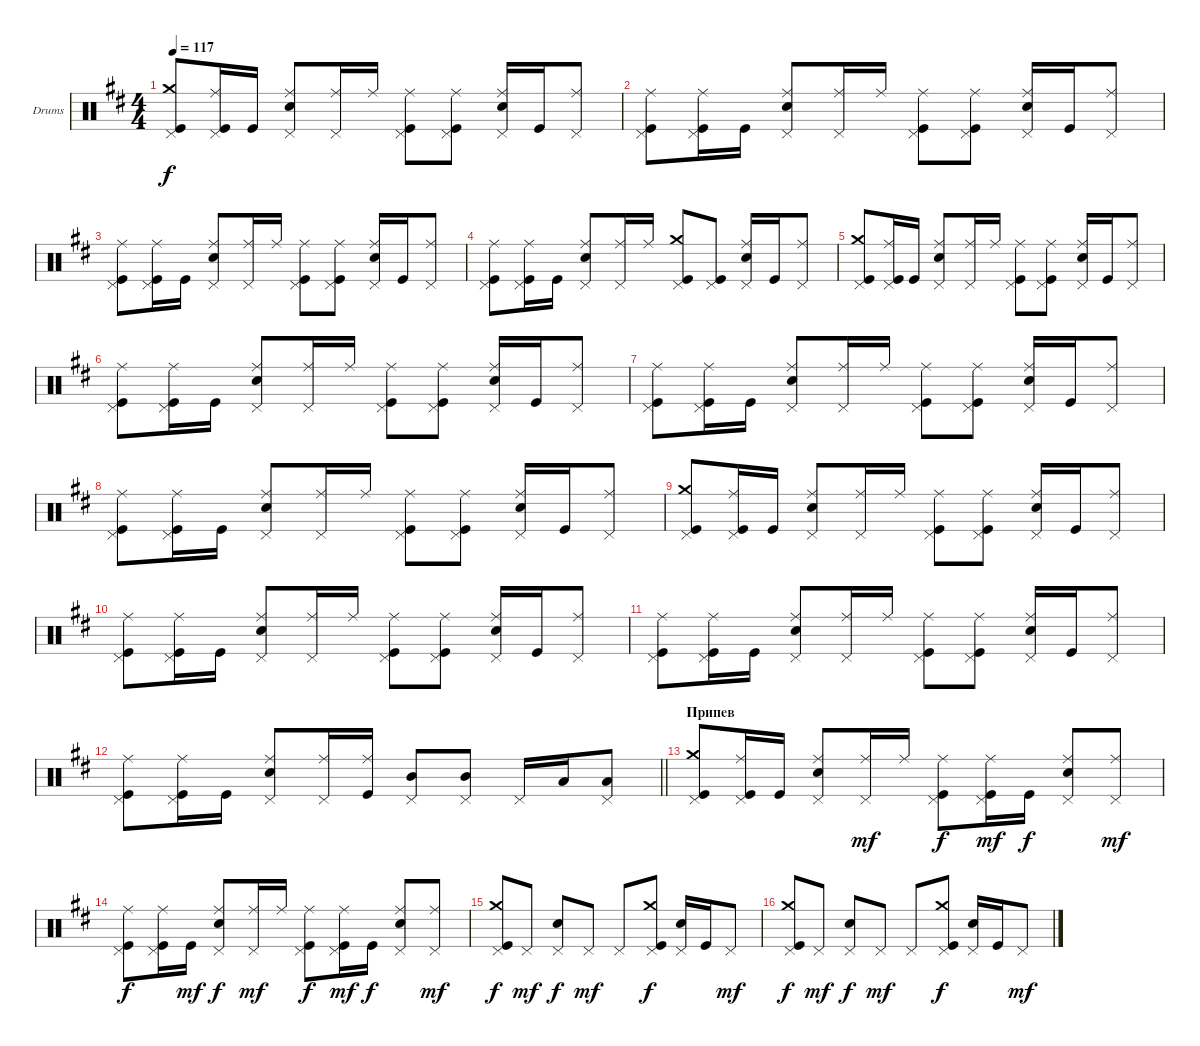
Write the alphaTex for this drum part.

\bracketExtendMode groupsimilarinstruments
\firstSystemTrackNameOrientation horizontal
\otherSystemsTrackNameOrientation horizontal
\track ("Барабаны" "Drums") {instrument percussion}
\staff {score}
\articulation defaults
\ts (4 4)
\tempo 117
\clef neutral
\ks d
("Kick (hit)" "Crash medium (hit)" "Pedal Hi-Hat (hit)").8{dy f} ("Kick (hit)" "Ride (middle)" "Pedal Hi-Hat (hit)").16 "Kick (hit)".16 ("Snare (hit) 2" "Ride (middle)" "Pedal Hi-Hat (hit)").8 ("Ride (middle)" "Pedal Hi-Hat (hit)").16 "Ride (middle)".16 ("Kick (hit)" "Ride (middle)" "Pedal Hi-Hat (hit)").8 ("Ride (middle)" "Kick (hit)" "Pedal Hi-Hat (hit)").8 ("Snare (hit) 2" "Ride (middle)" "Pedal Hi-Hat (hit)").16 "Kick (hit)".16 ("Ride (middle)" "Pedal Hi-Hat (hit)").8 |
("Kick (hit)" "Ride (middle)" "Pedal Hi-Hat (hit)").8 ("Kick (hit)" "Ride (middle)" "Pedal Hi-Hat (hit)").16 "Kick (hit)".16 ("Snare (hit) 2" "Ride (middle)" "Pedal Hi-Hat (hit)").8 ("Ride (middle)" "Pedal Hi-Hat (hit)").16 "Ride (middle)".16 ("Kick (hit)" "Ride (middle)" "Pedal Hi-Hat (hit)").8 ("Ride (middle)" "Kick (hit)" "Pedal Hi-Hat (hit)").8 ("Snare (hit) 2" "Ride (middle)" "Pedal Hi-Hat (hit)").16 "Kick (hit)".16 ("Ride (middle)" "Pedal Hi-Hat (hit)").8 |
("Kick (hit)" "Ride (middle)" "Pedal Hi-Hat (hit)").8 ("Kick (hit)" "Ride (middle)" "Pedal Hi-Hat (hit)").16 "Kick (hit)".16 ("Snare (hit) 2" "Ride (middle)" "Pedal Hi-Hat (hit)").8 ("Ride (middle)" "Pedal Hi-Hat (hit)").16 "Ride (middle)".16 ("Kick (hit)" "Ride (middle)" "Pedal Hi-Hat (hit)").8 ("Ride (middle)" "Kick (hit)" "Pedal Hi-Hat (hit)").8 ("Snare (hit) 2" "Ride (middle)" "Pedal Hi-Hat (hit)").16 "Kick (hit)".16 ("Ride (middle)" "Pedal Hi-Hat (hit)").8 |
("Kick (hit)" "Ride (middle)" "Pedal Hi-Hat (hit)").8 ("Kick (hit)" "Ride (middle)" "Pedal Hi-Hat (hit)").16 "Kick (hit)".16 ("Snare (hit) 2" "Ride (middle)" "Pedal Hi-Hat (hit)").8 ("Ride (middle)" "Pedal Hi-Hat (hit)").16 "Ride (middle)".16 ("Kick (hit)" "Crash medium (hit)" "Pedal Hi-Hat (hit)").8 ("Kick (hit)" "Pedal Hi-Hat (hit)").8 ("Snare (hit) 2" "Ride (middle)" "Pedal Hi-Hat (hit)").16 "Kick (hit)".16 ("Ride (middle)" "Pedal Hi-Hat (hit)").8 |
("Kick (hit)" "Crash medium (hit)" "Pedal Hi-Hat (hit)").8 ("Kick (hit)" "Ride (middle)" "Pedal Hi-Hat (hit)").16 "Kick (hit)".16 ("Snare (hit) 2" "Ride (middle)" "Pedal Hi-Hat (hit)").8 ("Ride (middle)" "Pedal Hi-Hat (hit)").16 "Ride (middle)".16 ("Kick (hit)" "Ride (middle)" "Pedal Hi-Hat (hit)").8 ("Ride (middle)" "Kick (hit)" "Pedal Hi-Hat (hit)").8 ("Snare (hit) 2" "Ride (middle)" "Pedal Hi-Hat (hit)").16 "Kick (hit)".16 ("Ride (middle)" "Pedal Hi-Hat (hit)").8 |
("Kick (hit)" "Ride (middle)" "Pedal Hi-Hat (hit)").8 ("Kick (hit)" "Ride (middle)" "Pedal Hi-Hat (hit)").16 "Kick (hit)".16 ("Snare (hit) 2" "Ride (middle)" "Pedal Hi-Hat (hit)").8 ("Ride (middle)" "Pedal Hi-Hat (hit)").16 "Ride (middle)".16 ("Kick (hit)" "Ride (middle)" "Pedal Hi-Hat (hit)").8 ("Ride (middle)" "Kick (hit)" "Pedal Hi-Hat (hit)").8 ("Snare (hit) 2" "Ride (middle)" "Pedal Hi-Hat (hit)").16 "Kick (hit)".16 ("Ride (middle)" "Pedal Hi-Hat (hit)").8 |
("Kick (hit)" "Ride (middle)" "Pedal Hi-Hat (hit)").8 ("Kick (hit)" "Ride (middle)" "Pedal Hi-Hat (hit)").16 "Kick (hit)".16 ("Snare (hit) 2" "Ride (middle)" "Pedal Hi-Hat (hit)").8 ("Ride (middle)" "Pedal Hi-Hat (hit)").16 "Ride (middle)".16 ("Kick (hit)" "Ride (middle)" "Pedal Hi-Hat (hit)").8 ("Ride (middle)" "Kick (hit)" "Pedal Hi-Hat (hit)").8 ("Snare (hit) 2" "Ride (middle)" "Pedal Hi-Hat (hit)").16 "Kick (hit)".16 ("Ride (middle)" "Pedal Hi-Hat (hit)").8 |
("Kick (hit)" "Ride (middle)" "Pedal Hi-Hat (hit)").8 ("Kick (hit)" "Ride (middle)" "Pedal Hi-Hat (hit)").16 "Kick (hit)".16 ("Snare (hit) 2" "Ride (middle)" "Pedal Hi-Hat (hit)").8 ("Ride (middle)" "Pedal Hi-Hat (hit)").16 "Ride (middle)".16 ("Kick (hit)" "Ride (middle)" "Pedal Hi-Hat (hit)").8 ("Ride (middle)" "Kick (hit)" "Pedal Hi-Hat (hit)").8 ("Snare (hit) 2" "Ride (middle)" "Pedal Hi-Hat (hit)").16 "Kick (hit)".16 ("Ride (middle)" "Pedal Hi-Hat (hit)").8 |
("Kick (hit)" "Crash medium (hit)" "Pedal Hi-Hat (hit)").8 ("Kick (hit)" "Ride (middle)" "Pedal Hi-Hat (hit)").16 "Kick (hit)".16 ("Snare (hit) 2" "Ride (middle)" "Pedal Hi-Hat (hit)").8 ("Ride (middle)" "Pedal Hi-Hat (hit)").16 "Ride (middle)".16 ("Kick (hit)" "Ride (middle)" "Pedal Hi-Hat (hit)").8 ("Ride (middle)" "Kick (hit)" "Pedal Hi-Hat (hit)").8 ("Snare (hit) 2" "Ride (middle)" "Pedal Hi-Hat (hit)").16 "Kick (hit)".16 ("Ride (middle)" "Pedal Hi-Hat (hit)").8 |
("Kick (hit)" "Ride (middle)" "Pedal Hi-Hat (hit)").8 ("Kick (hit)" "Ride (middle)" "Pedal Hi-Hat (hit)").16 "Kick (hit)".16 ("Snare (hit) 2" "Ride (middle)" "Pedal Hi-Hat (hit)").8 ("Ride (middle)" "Pedal Hi-Hat (hit)").16 "Ride (middle)".16 ("Kick (hit)" "Ride (middle)" "Pedal Hi-Hat (hit)").8 ("Ride (middle)" "Kick (hit)" "Pedal Hi-Hat (hit)").8 ("Snare (hit) 2" "Ride (middle)" "Pedal Hi-Hat (hit)").16 "Kick (hit)".16 ("Ride (middle)" "Pedal Hi-Hat (hit)").8 |
("Kick (hit)" "Ride (middle)" "Pedal Hi-Hat (hit)").8 ("Kick (hit)" "Ride (middle)" "Pedal Hi-Hat (hit)").16 "Kick (hit)".16 ("Snare (hit) 2" "Ride (middle)" "Pedal Hi-Hat (hit)").8 ("Ride (middle)" "Pedal Hi-Hat (hit)").16 "Ride (middle)".16 ("Kick (hit)" "Ride (middle)" "Pedal Hi-Hat (hit)").8 ("Ride (middle)" "Kick (hit)" "Pedal Hi-Hat (hit)").8 ("Snare (hit) 2" "Ride (middle)" "Pedal Hi-Hat (hit)").16 "Kick (hit)".16 ("Ride (middle)" "Pedal Hi-Hat (hit)").8 |
\barLineRight lightlight
("Kick (hit)" "Ride (middle)" "Pedal Hi-Hat (hit)").8 ("Kick (hit)" "Ride (middle)" "Pedal Hi-Hat (hit)").16 "Kick (hit)".16 ("Snare (hit) 2" "Ride (middle)" "Pedal Hi-Hat (hit)").8 ("Ride (middle)" "Pedal Hi-Hat (hit)").16 ("Ride (middle)" "Kick (hit)").16 ("Mid Tom (hit)" "Pedal Hi-Hat (hit)").8 ("Mid Tom (hit)" "Pedal Hi-Hat (hit)").8 "Pedal Hi-Hat (hit)".16 "Low Tom (hit)".16 ("Pedal Hi-Hat (hit)" "Low Tom (hit)").8 |
\section ("" "Припев")
("Kick (hit)" "Crash medium (hit)" "Pedal Hi-Hat (hit)").8 ("Kick (hit)" "Ride (middle)" "Pedal Hi-Hat (hit)").16 "Kick (hit)".16 ("Snare (hit) 2" "Ride (middle)" "Pedal Hi-Hat (hit)").8 ("Ride (middle)" "Pedal Hi-Hat (hit)").16{dy mf} "Ride (middle)".16 ("Kick (hit)" "Ride (middle)" "Pedal Hi-Hat (hit)").8{dy f} ("Ride (middle)" "Kick (hit)" "Pedal Hi-Hat (hit)").16{dy mf} "Kick (hit)".16{dy f} ("Snare (hit) 2" "Ride (middle)" "Pedal Hi-Hat (hit)").8 ("Ride (middle)" "Pedal Hi-Hat (hit)").8{dy mf} |
("Kick (hit)" "Ride (middle)" "Pedal Hi-Hat (hit)").8{dy f} ("Kick (hit)" "Ride (middle)" "Pedal Hi-Hat (hit)").16 "Kick (hit)".16{dy mf} ("Snare (hit) 2" "Ride (middle)" "Pedal Hi-Hat (hit)").8{dy f} ("Ride (middle)" "Pedal Hi-Hat (hit)").16{dy mf} "Ride (middle)".16 ("Kick (hit)" "Ride (middle)" "Pedal Hi-Hat (hit)").8{dy f} ("Ride (middle)" "Kick (hit)" "Pedal Hi-Hat (hit)").16{dy mf} "Kick (hit)".16{dy f} ("Snare (hit) 2" "Ride (middle)" "Pedal Hi-Hat (hit)").8 ("Ride (middle)" "Pedal Hi-Hat (hit)").8{dy mf} |
("Kick (hit)" "Crash medium (hit)" "Pedal Hi-Hat (hit)").8{dy f} "Pedal Hi-Hat (hit)".8{dy mf} ("Snare (hit) 2" "Pedal Hi-Hat (hit)").8{dy f} "Pedal Hi-Hat (hit)".8{dy mf} "Pedal Hi-Hat (hit)".8 ("Kick (hit)" "Crash medium (hit)" "Pedal Hi-Hat (hit)").8{dy f} ("Snare (hit) 2" "Pedal Hi-Hat (hit)").16 "Kick (hit)".16 "Pedal Hi-Hat (hit)".8{dy mf} |
("Kick (hit)" "Crash medium (hit)" "Pedal Hi-Hat (hit)").8{dy f} "Pedal Hi-Hat (hit)".8{dy mf} ("Snare (hit) 2" "Pedal Hi-Hat (hit)").8{dy f} "Pedal Hi-Hat (hit)".8{dy mf} "Pedal Hi-Hat (hit)".8 ("Kick (hit)" "Crash medium (hit)" "Pedal Hi-Hat (hit)").8{dy f} ("Snare (hit) 2" "Pedal Hi-Hat (hit)").16 "Kick (hit)".16 "Pedal Hi-Hat (hit)".8{dy mf}
